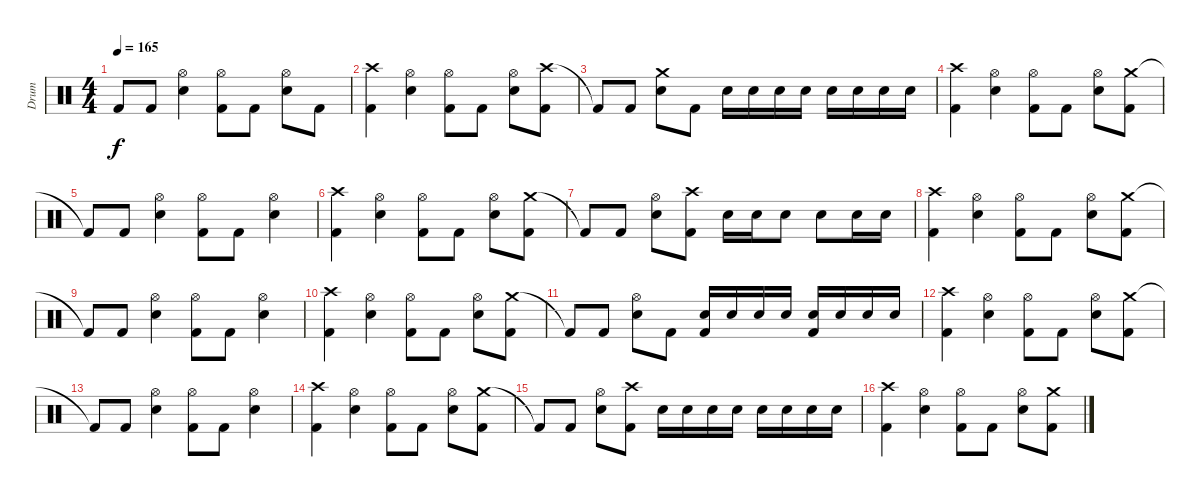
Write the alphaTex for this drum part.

\track ("Drum" "Drum") {instrument percussion}
\staff {score}
\articulation defaults
\ts (4 4)
\tempo 165
\clef neutral
\ks c "Kick (hit) 2"{t}.8{dy f} "Kick (hit) 2".8
("Hi-Hat (open)" "Electric Snare (hit)").4 ("Hi-Hat (open)" "Kick (hit) 2").8 "Kick (hit) 2".8 ("Hi-Hat (open)" "Electric Snare (hit)").8 "Kick (hit) 2".8 |
("Crash high (hit)" "Kick (hit) 2").4 ("Hi-Hat (open)" "Electric Snare (hit)").4 ("Hi-Hat (open)" "Kick (hit) 2").8 "Kick (hit) 2".8 ("Hi-Hat (open)" "Electric Snare (hit)").8 ("Crash high (hit)" "Kick (hit) 2").8 |
"Kick (hit) 2"{t}.8 "Kick (hit) 2".8 ("Crash medium (hit)" "Electric Snare (hit)").8 "Kick (hit) 2".8 "Electric Snare (hit)".16 "Electric Snare (hit)".16 "Electric Snare (hit)".16 "Electric Snare (hit)".16 "Electric Snare (hit)".16 "Electric Snare (hit)".16 "Electric Snare (hit)".16 "Electric Snare (hit)".16 |
("Crash high (hit)" "Kick (hit) 2").4 ("Hi-Hat (open)" "Electric Snare (hit)").4 ("Hi-Hat (open)" "Kick (hit) 2").8 "Kick (hit) 2".8 ("Hi-Hat (open)" "Electric Snare (hit)").8 ("Crash medium (hit)" "Kick (hit) 2").8 |
"Kick (hit) 2"{t}.8 "Kick (hit) 2".8 ("Hi-Hat (open)" "Electric Snare (hit)").4 ("Hi-Hat (open)" "Kick (hit) 2").8 "Kick (hit) 2".8 ("Hi-Hat (open)" "Electric Snare (hit)").4 |
("Crash high (hit)" "Kick (hit) 2").4 ("Hi-Hat (open)" "Electric Snare (hit)").4 ("Hi-Hat (open)" "Kick (hit) 2").8 "Kick (hit) 2".8 ("Hi-Hat (open)" "Electric Snare (hit)").8 ("Crash medium (hit)" "Kick (hit) 2").8 |
"Kick (hit) 2"{t}.8 "Kick (hit) 2".8 ("Hi-Hat (open)" "Electric Snare (hit)").8 ("Crash high (hit)" "Kick (hit) 2").8 "Electric Snare (hit)".16 "Electric Snare (hit)".16 "Electric Snare (hit)".8 "Electric Snare (hit)".8 "Electric Snare (hit)".16 "Electric Snare (hit)".16 |
("Crash high (hit)" "Kick (hit) 2").4 ("Hi-Hat (open)" "Electric Snare (hit)").4 ("Hi-Hat (open)" "Kick (hit) 2").8 "Kick (hit) 2".8 ("Hi-Hat (open)" "Electric Snare (hit)").8 ("Crash medium (hit)" "Kick (hit) 2").8 |
"Kick (hit) 2"{t}.8 "Kick (hit) 2".8 ("Hi-Hat (open)" "Electric Snare (hit)").4 ("Hi-Hat (open)" "Kick (hit) 2").8 "Kick (hit) 2".8 ("Hi-Hat (open)" "Electric Snare (hit)").4 |
("Crash high (hit)" "Kick (hit) 2").4 ("Hi-Hat (open)" "Electric Snare (hit)").4 ("Hi-Hat (open)" "Kick (hit) 2").8 "Kick (hit) 2".8 ("Hi-Hat (open)" "Electric Snare (hit)").8 ("Crash medium (hit)" "Kick (hit) 2").8 |
"Kick (hit) 2"{t}.8 "Kick (hit) 2".8 ("Hi-Hat (open)" "Electric Snare (hit)").8 "Kick (hit) 2".8 ("Electric Snare (hit)" "Kick (hit) 2").16 "Electric Snare (hit)".16 "Electric Snare (hit)".16 "Electric Snare (hit)".16 ("Electric Snare (hit)" "Kick (hit) 2").16 "Electric Snare (hit)".16 "Electric Snare (hit)".16 "Electric Snare (hit)".16 |
("Crash high (hit)" "Kick (hit) 2").4 ("Hi-Hat (open)" "Electric Snare (hit)").4 ("Hi-Hat (open)" "Kick (hit) 2").8 "Kick (hit) 2".8 ("Hi-Hat (open)" "Electric Snare (hit)").8 ("Crash medium (hit)" "Kick (hit) 2").8 |
"Kick (hit) 2"{t}.8 "Kick (hit) 2".8 ("Hi-Hat (open)" "Electric Snare (hit)").4 ("Hi-Hat (open)" "Kick (hit) 2").8 "Kick (hit) 2".8 ("Hi-Hat (open)" "Electric Snare (hit)").4 |
("Crash high (hit)" "Kick (hit) 2").4 ("Hi-Hat (open)" "Electric Snare (hit)").4 ("Hi-Hat (open)" "Kick (hit) 2").8 "Kick (hit) 2".8 ("Hi-Hat (open)" "Electric Snare (hit)").8 ("Crash medium (hit)" "Kick (hit) 2").8 |
"Kick (hit) 2"{t}.8 "Kick (hit) 2".8 ("Hi-Hat (open)" "Electric Snare (hit)").8 ("Crash high (hit)" "Kick (hit) 2").8 "Electric Snare (hit)".16 "Electric Snare (hit)".16 "Electric Snare (hit)".16 "Electric Snare (hit)".16 "Electric Snare (hit)".16 "Electric Snare (hit)".16 "Electric Snare (hit)".16 "Electric Snare (hit)".16 |
("Crash high (hit)" "Kick (hit) 2").4 ("Hi-Hat (open)" "Electric Snare (hit)").4 ("Hi-Hat (open)" "Kick (hit) 2").8 "Kick (hit) 2".8 ("Hi-Hat (open)" "Electric Snare (hit)").8 ("Crash medium (hit)" "Kick (hit) 2").8
